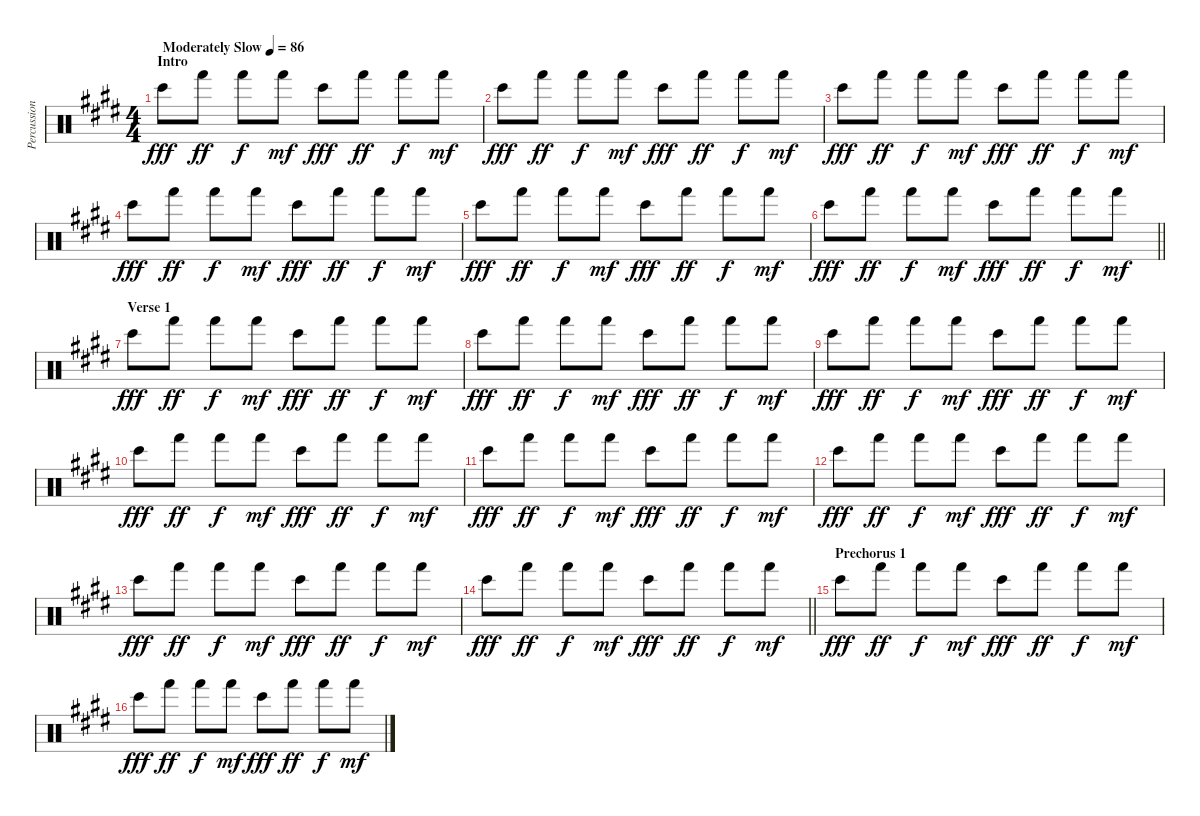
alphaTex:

\track ("Percussion" "Percussion") {instrument percussion}
\staff {score}
\articulation defaults
\ts (4 4)
\section ("" "Intro")
\tempo (86 "Moderately Slow")
\clef neutral
\ks e "Bongo High (hit)".8{dy fff} "Hand (hit)".8{dy ff} "Hand (hit)".8{dy f} "Hand (hit)".8{dy mf} "Bongo High (hit)".8{dy fff} "Hand (hit)".8{dy ff} "Hand (hit)".8{dy f} "Hand (hit)".8{dy mf}
|
"Bongo High (hit)".8{dy fff} "Hand (hit)".8{dy ff} "Hand (hit)".8{dy f} "Hand (hit)".8{dy mf} "Bongo High (hit)".8{dy fff} "Hand (hit)".8{dy ff} "Hand (hit)".8{dy f} "Hand (hit)".8{dy mf} |
"Bongo High (hit)".8{dy fff} "Hand (hit)".8{dy ff} "Hand (hit)".8{dy f} "Hand (hit)".8{dy mf} "Bongo High (hit)".8{dy fff} "Hand (hit)".8{dy ff} "Hand (hit)".8{dy f} "Hand (hit)".8{dy mf} |
"Bongo High (hit)".8{dy fff} "Hand (hit)".8{dy ff} "Hand (hit)".8{dy f} "Hand (hit)".8{dy mf} "Bongo High (hit)".8{dy fff} "Hand (hit)".8{dy ff} "Hand (hit)".8{dy f} "Hand (hit)".8{dy mf} |
"Bongo High (hit)".8{dy fff} "Hand (hit)".8{dy ff} "Hand (hit)".8{dy f} "Hand (hit)".8{dy mf} "Bongo High (hit)".8{dy fff} "Hand (hit)".8{dy ff} "Hand (hit)".8{dy f} "Hand (hit)".8{dy mf} |
\barLineRight lightlight "Bongo High (hit)".8{dy fff} "Hand (hit)".8{dy ff} "Hand (hit)".8{dy f} "Hand (hit)".8{dy mf} "Bongo High (hit)".8{dy fff} "Hand (hit)".8{dy ff} "Hand (hit)".8{dy f} "Hand (hit)".8{dy mf}
|
\section ("" "Verse 1")
"Bongo High (hit)".8{dy fff} "Hand (hit)".8{dy ff} "Hand (hit)".8{dy f} "Hand (hit)".8{dy mf} "Bongo High (hit)".8{dy fff} "Hand (hit)".8{dy ff} "Hand (hit)".8{dy f} "Hand (hit)".8{dy mf} |
"Bongo High (hit)".8{dy fff} "Hand (hit)".8{dy ff} "Hand (hit)".8{dy f} "Hand (hit)".8{dy mf} "Bongo High (hit)".8{dy fff} "Hand (hit)".8{dy ff} "Hand (hit)".8{dy f} "Hand (hit)".8{dy mf} |
"Bongo High (hit)".8{dy fff} "Hand (hit)".8{dy ff} "Hand (hit)".8{dy f} "Hand (hit)".8{dy mf} "Bongo High (hit)".8{dy fff} "Hand (hit)".8{dy ff} "Hand (hit)".8{dy f} "Hand (hit)".8{dy mf} |
"Bongo High (hit)".8{dy fff} "Hand (hit)".8{dy ff} "Hand (hit)".8{dy f} "Hand (hit)".8{dy mf} "Bongo High (hit)".8{dy fff} "Hand (hit)".8{dy ff} "Hand (hit)".8{dy f} "Hand (hit)".8{dy mf} |
"Bongo High (hit)".8{dy fff} "Hand (hit)".8{dy ff} "Hand (hit)".8{dy f} "Hand (hit)".8{dy mf} "Bongo High (hit)".8{dy fff} "Hand (hit)".8{dy ff} "Hand (hit)".8{dy f} "Hand (hit)".8{dy mf} |
"Bongo High (hit)".8{dy fff} "Hand (hit)".8{dy ff} "Hand (hit)".8{dy f} "Hand (hit)".8{dy mf} "Bongo High (hit)".8{dy fff} "Hand (hit)".8{dy ff} "Hand (hit)".8{dy f} "Hand (hit)".8{dy mf} |
"Bongo High (hit)".8{dy fff} "Hand (hit)".8{dy ff} "Hand (hit)".8{dy f} "Hand (hit)".8{dy mf} "Bongo High (hit)".8{dy fff} "Hand (hit)".8{dy ff} "Hand (hit)".8{dy f} "Hand (hit)".8{dy mf} |
\barLineRight lightlight "Bongo High (hit)".8{dy fff} "Hand (hit)".8{dy ff} "Hand (hit)".8{dy f} "Hand (hit)".8{dy mf} "Bongo High (hit)".8{dy fff} "Hand (hit)".8{dy ff} "Hand (hit)".8{dy f} "Hand (hit)".8{dy mf}
|
\section ("" "Prechorus 1")
"Bongo High (hit)".8{dy fff} "Hand (hit)".8{dy ff} "Hand (hit)".8{dy f} "Hand (hit)".8{dy mf} "Bongo High (hit)".8{dy fff} "Hand (hit)".8{dy ff} "Hand (hit)".8{dy f} "Hand (hit)".8{dy mf} |
"Bongo High (hit)".8{dy fff} "Hand (hit)".8{dy ff} "Hand (hit)".8{dy f} "Hand (hit)".8{dy mf} "Bongo High (hit)".8{dy fff} "Hand (hit)".8{dy ff} "Hand (hit)".8{dy f} "Hand (hit)".8{dy mf}
